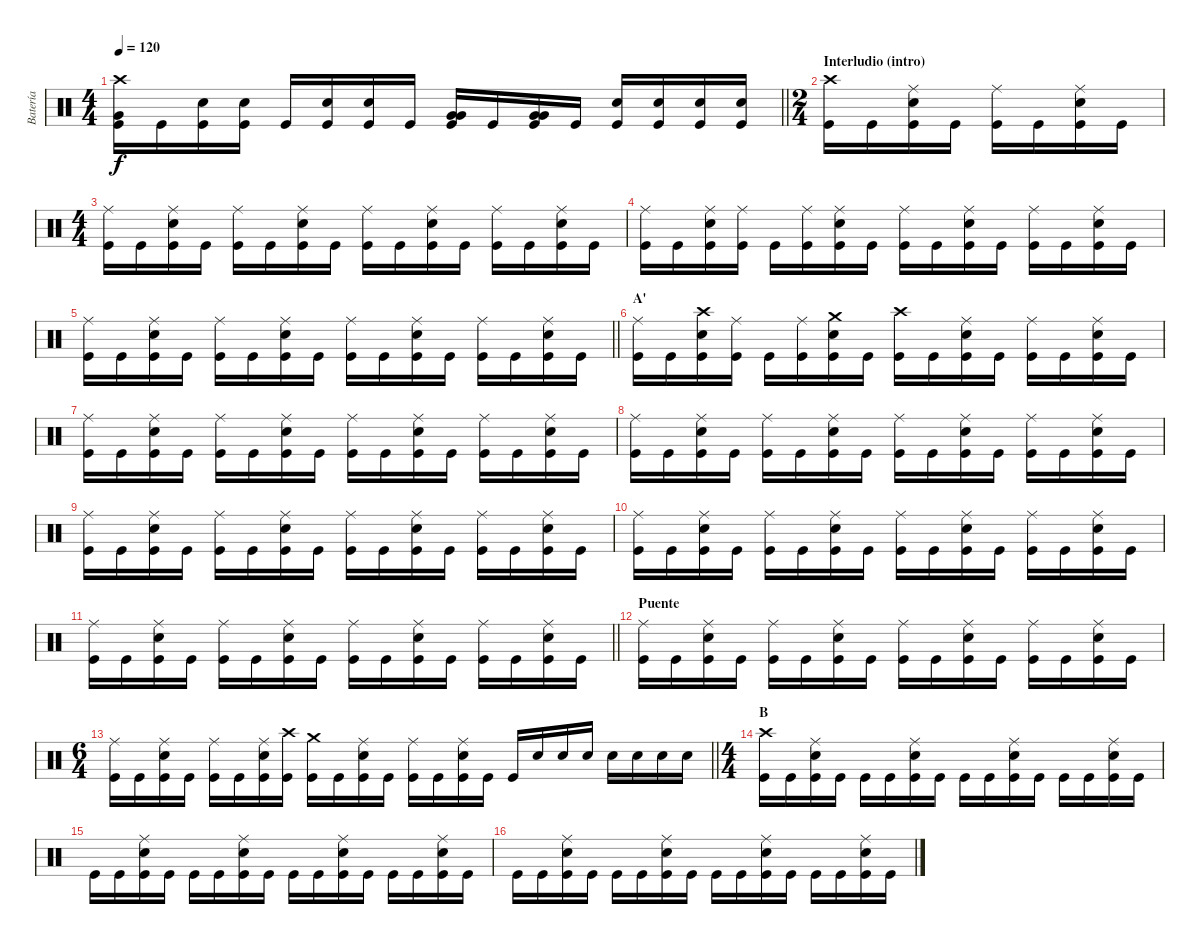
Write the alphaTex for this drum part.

\track ("Batería" "Batería") {instrument percussion}
\staff {score}
\articulation defaults
\ts (4 4)
\tempo 120
\clef neutral
\barLineRight lightlight
\ks c
("Crash high (hit)" "Very Low Tom (hit)" "Kick (hit)").16{dy f} "Kick (hit)".16 ("Snare (hit) 2" "Kick (hit)").16 ("Snare (hit) 2" "Kick (hit)").16 "Kick (hit)".16 ("Snare (hit) 2" "Kick (hit)").16 ("Snare (hit) 2" "Kick (hit)").16 "Kick (hit)".16 ("Very Low Tom (hit)" "Very Low Tom (hit)" "Kick (hit)").16 "Kick (hit)".16 ("Very Low Tom (hit)" "Very Low Tom (hit)" "Kick (hit)").16 "Kick (hit)".16 ("Snare (hit) 2" "Kick (hit)").16 ("Snare (hit) 2" "Kick (hit)").16 ("Snare (hit) 2" "Kick (hit)").16 ("Snare (hit) 2" "Kick (hit)").16 |
\ts (2 4)
\section ("" "Interludio (intro)")
("Crash high (hit)" "Kick (hit)").16 "Kick (hit)".16 ("Ride (middle)" "Snare (hit) 2" "Kick (hit)").16 "Kick (hit)".16 ("Ride (middle)" "Kick (hit)").16 "Kick (hit)".16 ("Ride (middle)" "Snare (hit) 2" "Kick (hit)").16 "Kick (hit)".16 |
\ts (4 4)
("Ride (middle)" "Kick (hit)").16 "Kick (hit)".16 ("Ride (middle)" "Snare (hit) 2" "Kick (hit)").16 "Kick (hit)".16 ("Ride (middle)" "Kick (hit)").16 "Kick (hit)".16 ("Ride (middle)" "Snare (hit) 2" "Kick (hit)").16 "Kick (hit)".16 ("Ride (middle)" "Kick (hit)").16 "Kick (hit)".16 ("Ride (middle)" "Snare (hit) 2" "Kick (hit)").16 "Kick (hit)".16 ("Ride (middle)" "Kick (hit)").16 "Kick (hit)".16 ("Ride (middle)" "Snare (hit) 2" "Kick (hit)").16 "Kick (hit)".16 |
("Ride (middle)" "Kick (hit)").16 "Kick (hit)".16 ("Ride (middle)" "Snare (hit) 2" "Kick (hit)").16 ("Ride (middle)" "Kick (hit)").16 "Kick (hit)".16 ("Ride (middle)" "Kick (hit)").16 ("Ride (middle)" "Snare (hit) 2" "Kick (hit)").16 "Kick (hit)".16 ("Ride (middle)" "Kick (hit)").16 "Kick (hit)".16 ("Ride (middle)" "Snare (hit) 2" "Kick (hit)").16 "Kick (hit)".16 ("Ride (middle)" "Kick (hit)").16 "Kick (hit)".16 ("Ride (middle)" "Snare (hit) 2" "Kick (hit)").16 "Kick (hit)".16 |
\barLineRight lightlight
("Ride (middle)" "Kick (hit)").16 "Kick (hit)".16 ("Ride (middle)" "Snare (hit) 2" "Kick (hit)").16 "Kick (hit)".16 ("Ride (middle)" "Kick (hit)").16 "Kick (hit)".16 ("Ride (middle)" "Snare (hit) 2" "Kick (hit)").16 "Kick (hit)".16 ("Ride (middle)" "Kick (hit)").16 "Kick (hit)".16 ("Ride (middle)" "Snare (hit) 2" "Kick (hit)").16 "Kick (hit)".16 ("Ride (middle)" "Kick (hit)").16 "Kick (hit)".16 ("Ride (middle)" "Snare (hit) 2" "Kick (hit)").16 "Kick (hit)".16 |
\section ("" "A'")
("Ride (middle)" "Kick (hit)").16 "Kick (hit)".16 ("Crash high (hit)" "Snare (hit) 2" "Kick (hit)").16 ("Ride (middle)" "Kick (hit)").16 "Kick (hit)".16 ("Ride (middle)" "Kick (hit)").16 ("Crash medium (hit)" "Snare (hit) 2" "Kick (hit)").16 "Kick (hit)".16 ("Crash high (hit)" "Kick (hit)").16 "Kick (hit)".16 ("Ride (middle)" "Snare (hit) 2" "Kick (hit)").16 "Kick (hit)".16 ("Ride (middle)" "Kick (hit)").16 "Kick (hit)".16 ("Ride (middle)" "Snare (hit) 2" "Kick (hit)").16 "Kick (hit)".16 |
("Ride (middle)" "Kick (hit)").16 "Kick (hit)".16 ("Ride (middle)" "Snare (hit) 2" "Kick (hit)").16 "Kick (hit)".16 ("Ride (middle)" "Kick (hit)").16 "Kick (hit)".16 ("Ride (middle)" "Snare (hit) 2" "Kick (hit)").16 "Kick (hit)".16 ("Ride (middle)" "Kick (hit)").16 "Kick (hit)".16 ("Ride (middle)" "Snare (hit) 2" "Kick (hit)").16 "Kick (hit)".16 ("Ride (middle)" "Kick (hit)").16 "Kick (hit)".16 ("Ride (middle)" "Snare (hit) 2" "Kick (hit)").16 "Kick (hit)".16 |
("Ride (middle)" "Kick (hit)").16 "Kick (hit)".16 ("Ride (middle)" "Snare (hit) 2" "Kick (hit)").16 "Kick (hit)".16 ("Ride (middle)" "Kick (hit)").16 "Kick (hit)".16 ("Ride (middle)" "Snare (hit) 2" "Kick (hit)").16 "Kick (hit)".16 ("Ride (middle)" "Kick (hit)").16 "Kick (hit)".16 ("Ride (middle)" "Snare (hit) 2" "Kick (hit)").16 "Kick (hit)".16 ("Ride (middle)" "Kick (hit)").16 "Kick (hit)".16 ("Ride (middle)" "Snare (hit) 2" "Kick (hit)").16 "Kick (hit)".16 |
("Ride (middle)" "Kick (hit)").16 "Kick (hit)".16 ("Ride (middle)" "Snare (hit) 2" "Kick (hit)").16 "Kick (hit)".16 ("Ride (middle)" "Kick (hit)").16 "Kick (hit)".16 ("Ride (middle)" "Snare (hit) 2" "Kick (hit)").16 "Kick (hit)".16 ("Ride (middle)" "Kick (hit)").16 "Kick (hit)".16 ("Ride (middle)" "Snare (hit) 2" "Kick (hit)").16 "Kick (hit)".16 ("Ride (middle)" "Kick (hit)").16 "Kick (hit)".16 ("Ride (middle)" "Snare (hit) 2" "Kick (hit)").16 "Kick (hit)".16 |
("Ride (middle)" "Kick (hit)").16 "Kick (hit)".16 ("Ride (middle)" "Snare (hit) 2" "Kick (hit)").16 "Kick (hit)".16 ("Ride (middle)" "Kick (hit)").16 "Kick (hit)".16 ("Ride (middle)" "Snare (hit) 2" "Kick (hit)").16 "Kick (hit)".16 ("Ride (middle)" "Kick (hit)").16 "Kick (hit)".16 ("Ride (middle)" "Snare (hit) 2" "Kick (hit)").16 "Kick (hit)".16 ("Ride (middle)" "Kick (hit)").16 "Kick (hit)".16 ("Ride (middle)" "Snare (hit) 2" "Kick (hit)").16 "Kick (hit)".16 |
\barLineRight lightlight
("Ride (middle)" "Kick (hit)").16 "Kick (hit)".16 ("Ride (middle)" "Snare (hit) 2" "Kick (hit)").16 "Kick (hit)".16 ("Ride (middle)" "Kick (hit)").16 "Kick (hit)".16 ("Ride (middle)" "Snare (hit) 2" "Kick (hit)").16 "Kick (hit)".16 ("Ride (middle)" "Kick (hit)").16 "Kick (hit)".16 ("Ride (middle)" "Snare (hit) 2" "Kick (hit)").16 "Kick (hit)".16 ("Ride (middle)" "Kick (hit)").16 "Kick (hit)".16 ("Ride (middle)" "Snare (hit) 2" "Kick (hit)").16 "Kick (hit)".16 |
\section ("" "Puente")
("Ride (middle)" "Kick (hit)").16 "Kick (hit)".16 ("Ride (middle)" "Snare (hit) 2" "Kick (hit)").16 "Kick (hit)".16 ("Ride (middle)" "Kick (hit)").16 "Kick (hit)".16 ("Ride (middle)" "Snare (hit) 2" "Kick (hit)").16 "Kick (hit)".16 ("Ride (middle)" "Kick (hit)").16 "Kick (hit)".16 ("Ride (middle)" "Snare (hit) 2" "Kick (hit)").16 "Kick (hit)".16 ("Ride (middle)" "Kick (hit)").16 "Kick (hit)".16 ("Ride (middle)" "Snare (hit) 2" "Kick (hit)").16 "Kick (hit)".16 |
\ts (6 4)
\barLineRight lightlight
("Ride (middle)" "Kick (hit)").16 "Kick (hit)".16 ("Ride (middle)" "Snare (hit) 2" "Kick (hit)").16 "Kick (hit)".16 ("Ride (middle)" "Kick (hit)").16 "Kick (hit)".16 ("Ride (middle)" "Snare (hit) 2" "Kick (hit)").16 ("Crash high (hit)" "Kick (hit)").16 ("Crash medium (hit)" "Kick (hit)").16 "Kick (hit)".16 ("Ride (middle)" "Snare (hit) 2" "Kick (hit)").16 "Kick (hit)".16 ("Ride (middle)" "Kick (hit)").16 "Kick (hit)".16 ("Ride (middle)" "Snare (hit) 2" "Kick (hit)").16 "Kick (hit)".16 "Kick (hit)".16 "Snare (hit) 2".16 "Snare (hit) 2".16 "Snare (hit) 2".16 "Snare (hit) 2".16 "Snare (hit) 2".16 "Snare (hit) 2".16 "Snare (hit) 2".16 |
\ts (4 4)
\section ("" "B")
("Crash high (hit)" "Kick (hit)").16 "Kick (hit)".16 ("Ride (middle)" "Snare (hit) 2" "Kick (hit)").16 "Kick (hit)".16 "Kick (hit)".16 "Kick (hit)".16 ("Ride (middle)" "Snare (hit) 2" "Kick (hit)").16 "Kick (hit)".16 "Kick (hit)".16 "Kick (hit)".16 ("Ride (middle)" "Snare (hit) 2" "Kick (hit)").16 "Kick (hit)".16 "Kick (hit)".16 "Kick (hit)".16 ("Ride (middle)" "Snare (hit) 2" "Kick (hit)").16 "Kick (hit)".16 |
"Kick (hit)".16 "Kick (hit)".16 ("Ride (middle)" "Snare (hit) 2" "Kick (hit)").16 "Kick (hit)".16 "Kick (hit)".16 "Kick (hit)".16 ("Ride (middle)" "Snare (hit) 2" "Kick (hit)").16 "Kick (hit)".16 "Kick (hit)".16 "Kick (hit)".16 ("Ride (middle)" "Snare (hit) 2" "Kick (hit)").16 "Kick (hit)".16 "Kick (hit)".16 "Kick (hit)".16 ("Ride (middle)" "Snare (hit) 2" "Kick (hit)").16 "Kick (hit)".16 |
"Kick (hit)".16 "Kick (hit)".16 ("Ride (middle)" "Snare (hit) 2" "Kick (hit)").16 "Kick (hit)".16 "Kick (hit)".16 "Kick (hit)".16 ("Ride (middle)" "Snare (hit) 2" "Kick (hit)").16 "Kick (hit)".16 "Kick (hit)".16 "Kick (hit)".16 ("Ride (middle)" "Snare (hit) 2" "Kick (hit)").16 "Kick (hit)".16 "Kick (hit)".16 "Kick (hit)".16 ("Ride (middle)" "Snare (hit) 2" "Kick (hit)").16 "Kick (hit)".16
